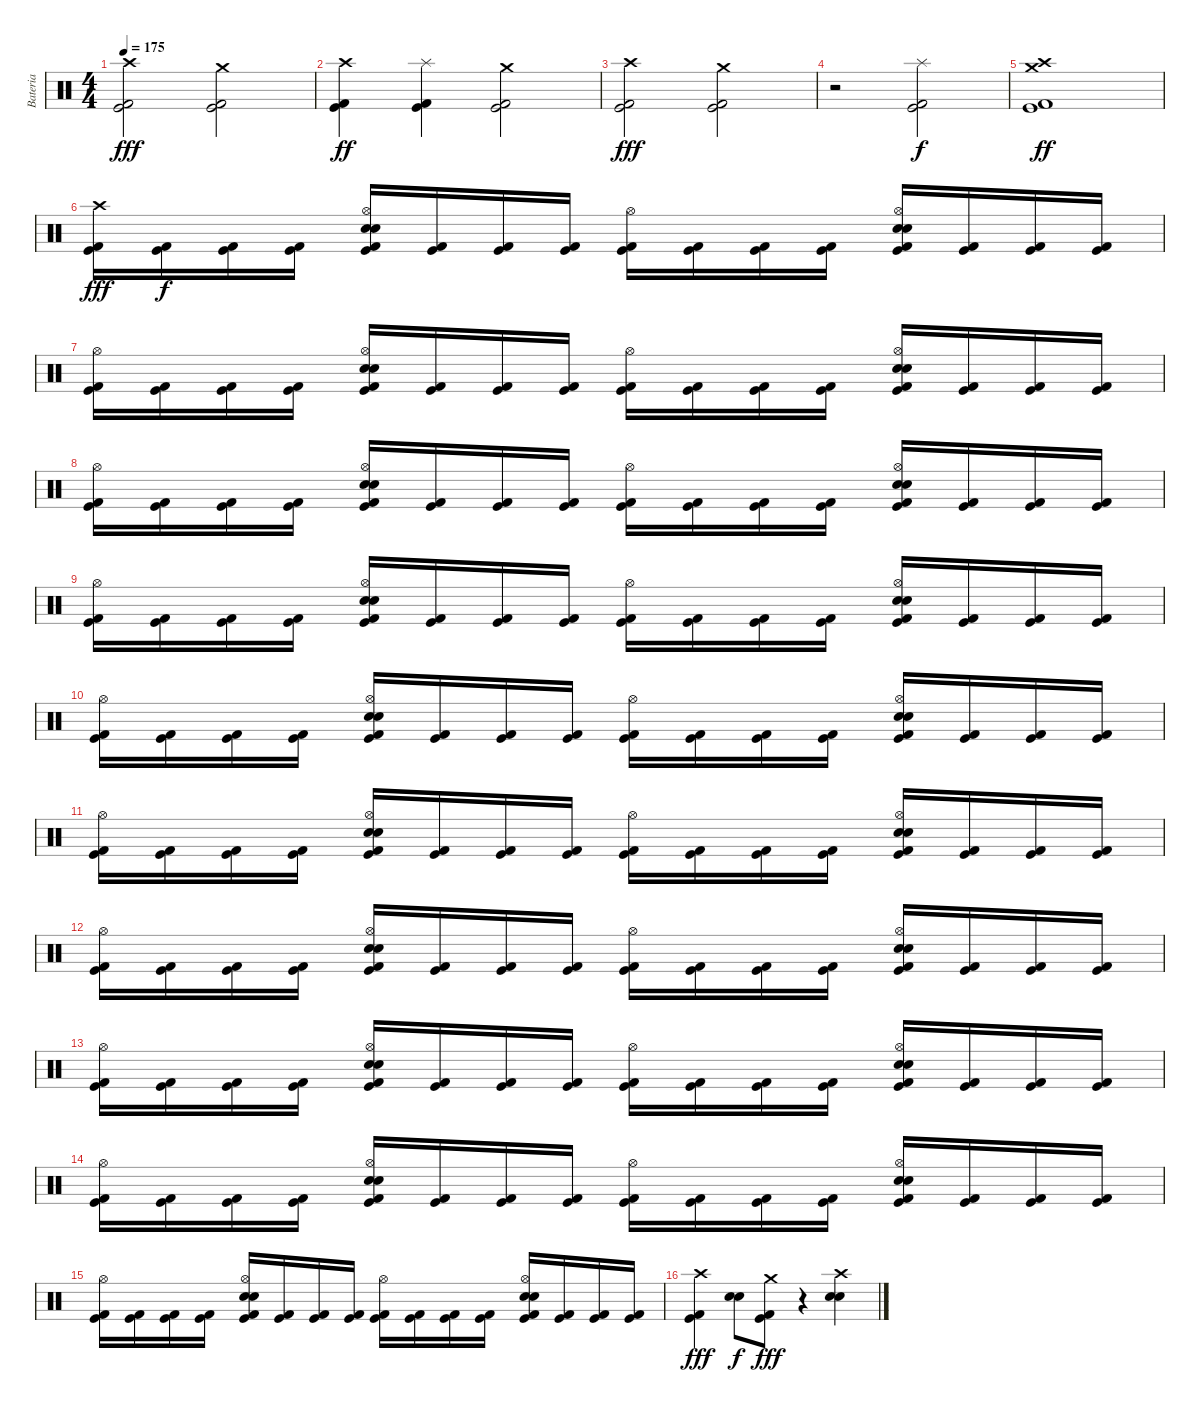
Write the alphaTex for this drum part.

\track ("Bateria" "Bateria") {instrument percussion}
\staff {score}
\articulation defaults
\ts (4 4)
\tempo 175
\clef neutral
\ks c
("Crash high (hit)" "Kick (hit) 2" "Kick (hit)").2{dy fff} ("Crash medium (hit)" "Kick (hit) 2" "Kick (hit)").2 |
("Crash high (hit)" "Kick (hit) 2" "Kick (hit)").4{dy ff} ("Splash (hit)" "Kick (hit) 2" "Kick (hit)").4 ("Crash medium (hit)" "Kick (hit) 2" "Kick (hit)").2 |
("Crash high (hit)" "Kick (hit) 2" "Kick (hit)").2{dy fff} ("Crash medium (hit)" "Kick (hit) 2" "Kick (hit)").2 |
r.2 ("Splash (hit)" "Kick (hit) 2" "Kick (hit)").2{dy f} |
("Crash high (hit)" "Crash medium (hit)" "Kick (hit) 2" "Kick (hit)").1{dy ff} |
("Crash high (hit)" "Kick (hit) 2" "Kick (hit)").16{dy fff} ("Kick (hit) 2" "Kick (hit)").16{dy f} ("Kick (hit) 2" "Kick (hit)").16 ("Kick (hit) 2" "Kick (hit)").16 ("Hi-Hat (open)" "Electric Snare (hit)" "Snare (hit) 2" "Kick (hit) 2" "Kick (hit)").16 ("Kick (hit) 2" "Kick (hit)").16 ("Kick (hit) 2" "Kick (hit)").16 ("Kick (hit) 2" "Kick (hit)").16 ("Hi-Hat (open)" "Kick (hit) 2" "Kick (hit)").16 ("Kick (hit) 2" "Kick (hit)").16 ("Kick (hit) 2" "Kick (hit)").16 ("Kick (hit) 2" "Kick (hit)").16 ("Hi-Hat (open)" "Electric Snare (hit)" "Snare (hit) 2" "Kick (hit) 2" "Kick (hit)").16 ("Kick (hit) 2" "Kick (hit)").16 ("Kick (hit) 2" "Kick (hit)").16 ("Kick (hit) 2" "Kick (hit)").16 |
("Hi-Hat (open)" "Kick (hit) 2" "Kick (hit)").16 ("Kick (hit) 2" "Kick (hit)").16 ("Kick (hit) 2" "Kick (hit)").16 ("Kick (hit) 2" "Kick (hit)").16 ("Hi-Hat (open)" "Electric Snare (hit)" "Snare (hit) 2" "Kick (hit) 2" "Kick (hit)").16 ("Kick (hit) 2" "Kick (hit)").16 ("Kick (hit) 2" "Kick (hit)").16 ("Kick (hit) 2" "Kick (hit)").16 ("Hi-Hat (open)" "Kick (hit) 2" "Kick (hit)").16 ("Kick (hit) 2" "Kick (hit)").16 ("Kick (hit) 2" "Kick (hit)").16 ("Kick (hit) 2" "Kick (hit)").16 ("Hi-Hat (open)" "Electric Snare (hit)" "Snare (hit) 2" "Kick (hit) 2" "Kick (hit)").16 ("Kick (hit) 2" "Kick (hit)").16 ("Kick (hit) 2" "Kick (hit)").16 ("Kick (hit) 2" "Kick (hit)").16 |
("Hi-Hat (open)" "Kick (hit) 2" "Kick (hit)").16 ("Kick (hit) 2" "Kick (hit)").16 ("Kick (hit) 2" "Kick (hit)").16 ("Kick (hit) 2" "Kick (hit)").16 ("Hi-Hat (open)" "Electric Snare (hit)" "Snare (hit) 2" "Kick (hit) 2" "Kick (hit)").16 ("Kick (hit) 2" "Kick (hit)").16 ("Kick (hit) 2" "Kick (hit)").16 ("Kick (hit) 2" "Kick (hit)").16 ("Hi-Hat (open)" "Kick (hit) 2" "Kick (hit)").16 ("Kick (hit) 2" "Kick (hit)").16 ("Kick (hit) 2" "Kick (hit)").16 ("Kick (hit) 2" "Kick (hit)").16 ("Hi-Hat (open)" "Electric Snare (hit)" "Snare (hit) 2" "Kick (hit) 2" "Kick (hit)").16 ("Kick (hit) 2" "Kick (hit)").16 ("Kick (hit) 2" "Kick (hit)").16 ("Kick (hit) 2" "Kick (hit)").16 |
("Hi-Hat (open)" "Kick (hit) 2" "Kick (hit)").16 ("Kick (hit) 2" "Kick (hit)").16 ("Kick (hit) 2" "Kick (hit)").16 ("Kick (hit) 2" "Kick (hit)").16 ("Hi-Hat (open)" "Electric Snare (hit)" "Snare (hit) 2" "Kick (hit) 2" "Kick (hit)").16 ("Kick (hit) 2" "Kick (hit)").16 ("Kick (hit) 2" "Kick (hit)").16 ("Kick (hit) 2" "Kick (hit)").16 ("Hi-Hat (open)" "Kick (hit) 2" "Kick (hit)").16 ("Kick (hit) 2" "Kick (hit)").16 ("Kick (hit) 2" "Kick (hit)").16 ("Kick (hit) 2" "Kick (hit)").16 ("Hi-Hat (open)" "Electric Snare (hit)" "Snare (hit) 2" "Kick (hit) 2" "Kick (hit)").16 ("Kick (hit) 2" "Kick (hit)").16 ("Kick (hit) 2" "Kick (hit)").16 ("Kick (hit) 2" "Kick (hit)").16 |
("Hi-Hat (open)" "Kick (hit) 2" "Kick (hit)").16 ("Kick (hit) 2" "Kick (hit)").16 ("Kick (hit) 2" "Kick (hit)").16 ("Kick (hit) 2" "Kick (hit)").16 ("Hi-Hat (open)" "Electric Snare (hit)" "Snare (hit) 2" "Kick (hit) 2" "Kick (hit)").16 ("Kick (hit) 2" "Kick (hit)").16 ("Kick (hit) 2" "Kick (hit)").16 ("Kick (hit) 2" "Kick (hit)").16 ("Hi-Hat (open)" "Kick (hit) 2" "Kick (hit)").16 ("Kick (hit) 2" "Kick (hit)").16 ("Kick (hit) 2" "Kick (hit)").16 ("Kick (hit) 2" "Kick (hit)").16 ("Hi-Hat (open)" "Electric Snare (hit)" "Snare (hit) 2" "Kick (hit) 2" "Kick (hit)").16 ("Kick (hit) 2" "Kick (hit)").16 ("Kick (hit) 2" "Kick (hit)").16 ("Kick (hit) 2" "Kick (hit)").16 |
("Hi-Hat (open)" "Kick (hit) 2" "Kick (hit)").16 ("Kick (hit) 2" "Kick (hit)").16 ("Kick (hit) 2" "Kick (hit)").16 ("Kick (hit) 2" "Kick (hit)").16 ("Hi-Hat (open)" "Electric Snare (hit)" "Snare (hit) 2" "Kick (hit) 2" "Kick (hit)").16 ("Kick (hit) 2" "Kick (hit)").16 ("Kick (hit) 2" "Kick (hit)").16 ("Kick (hit) 2" "Kick (hit)").16 ("Hi-Hat (open)" "Kick (hit) 2" "Kick (hit)").16 ("Kick (hit) 2" "Kick (hit)").16 ("Kick (hit) 2" "Kick (hit)").16 ("Kick (hit) 2" "Kick (hit)").16 ("Hi-Hat (open)" "Electric Snare (hit)" "Snare (hit) 2" "Kick (hit) 2" "Kick (hit)").16 ("Kick (hit) 2" "Kick (hit)").16 ("Kick (hit) 2" "Kick (hit)").16 ("Kick (hit) 2" "Kick (hit)").16 |
("Hi-Hat (open)" "Kick (hit) 2" "Kick (hit)").16 ("Kick (hit) 2" "Kick (hit)").16 ("Kick (hit) 2" "Kick (hit)").16 ("Kick (hit) 2" "Kick (hit)").16 ("Hi-Hat (open)" "Electric Snare (hit)" "Snare (hit) 2" "Kick (hit) 2" "Kick (hit)").16 ("Kick (hit) 2" "Kick (hit)").16 ("Kick (hit) 2" "Kick (hit)").16 ("Kick (hit) 2" "Kick (hit)").16 ("Hi-Hat (open)" "Kick (hit) 2" "Kick (hit)").16 ("Kick (hit) 2" "Kick (hit)").16 ("Kick (hit) 2" "Kick (hit)").16 ("Kick (hit) 2" "Kick (hit)").16 ("Hi-Hat (open)" "Electric Snare (hit)" "Snare (hit) 2" "Kick (hit) 2" "Kick (hit)").16 ("Kick (hit) 2" "Kick (hit)").16 ("Kick (hit) 2" "Kick (hit)").16 ("Kick (hit) 2" "Kick (hit)").16 |
("Hi-Hat (open)" "Kick (hit) 2" "Kick (hit)").16 ("Kick (hit) 2" "Kick (hit)").16 ("Kick (hit) 2" "Kick (hit)").16 ("Kick (hit) 2" "Kick (hit)").16 ("Hi-Hat (open)" "Electric Snare (hit)" "Snare (hit) 2" "Kick (hit) 2" "Kick (hit)").16 ("Kick (hit) 2" "Kick (hit)").16 ("Kick (hit) 2" "Kick (hit)").16 ("Kick (hit) 2" "Kick (hit)").16 ("Hi-Hat (open)" "Kick (hit) 2" "Kick (hit)").16 ("Kick (hit) 2" "Kick (hit)").16 ("Kick (hit) 2" "Kick (hit)").16 ("Kick (hit) 2" "Kick (hit)").16 ("Hi-Hat (open)" "Electric Snare (hit)" "Snare (hit) 2" "Kick (hit) 2" "Kick (hit)").16 ("Kick (hit) 2" "Kick (hit)").16 ("Kick (hit) 2" "Kick (hit)").16 ("Kick (hit) 2" "Kick (hit)").16 |
("Hi-Hat (open)" "Kick (hit) 2" "Kick (hit)").16 ("Kick (hit) 2" "Kick (hit)").16 ("Kick (hit) 2" "Kick (hit)").16 ("Kick (hit) 2" "Kick (hit)").16 ("Hi-Hat (open)" "Electric Snare (hit)" "Snare (hit) 2" "Kick (hit) 2" "Kick (hit)").16 ("Kick (hit) 2" "Kick (hit)").16 ("Kick (hit) 2" "Kick (hit)").16 ("Kick (hit) 2" "Kick (hit)").16 ("Hi-Hat (open)" "Kick (hit) 2" "Kick (hit)").16 ("Kick (hit) 2" "Kick (hit)").16 ("Kick (hit) 2" "Kick (hit)").16 ("Kick (hit) 2" "Kick (hit)").16 ("Hi-Hat (open)" "Electric Snare (hit)" "Snare (hit) 2" "Kick (hit) 2" "Kick (hit)").16 ("Kick (hit) 2" "Kick (hit)").16 ("Kick (hit) 2" "Kick (hit)").16 ("Kick (hit) 2" "Kick (hit)").16 |
("Hi-Hat (open)" "Kick (hit) 2" "Kick (hit)").16 ("Kick (hit) 2" "Kick (hit)").16 ("Kick (hit) 2" "Kick (hit)").16 ("Kick (hit) 2" "Kick (hit)").16 ("Hi-Hat (open)" "Electric Snare (hit)" "Snare (hit) 2" "Kick (hit) 2" "Kick (hit)").16 ("Kick (hit) 2" "Kick (hit)").16 ("Kick (hit) 2" "Kick (hit)").16 ("Kick (hit) 2" "Kick (hit)").16 ("Hi-Hat (open)" "Kick (hit) 2" "Kick (hit)").16 ("Kick (hit) 2" "Kick (hit)").16 ("Kick (hit) 2" "Kick (hit)").16 ("Kick (hit) 2" "Kick (hit)").16 ("Hi-Hat (open)" "Electric Snare (hit)" "Snare (hit) 2" "Kick (hit) 2" "Kick (hit)").16 ("Kick (hit) 2" "Kick (hit)").16 ("Kick (hit) 2" "Kick (hit)").16 ("Kick (hit) 2" "Kick (hit)").16 |
("Crash high (hit)" "Kick (hit) 2" "Kick (hit)").4{dy fff} ("Electric Snare (hit)" "Snare (hit) 2").8{dy f} ("Crash medium (hit)" "Kick (hit) 2" "Kick (hit)").8{dy fff} r.4 ("Crash high (hit)" "Electric Snare (hit)" "Snare (hit) 2").4
